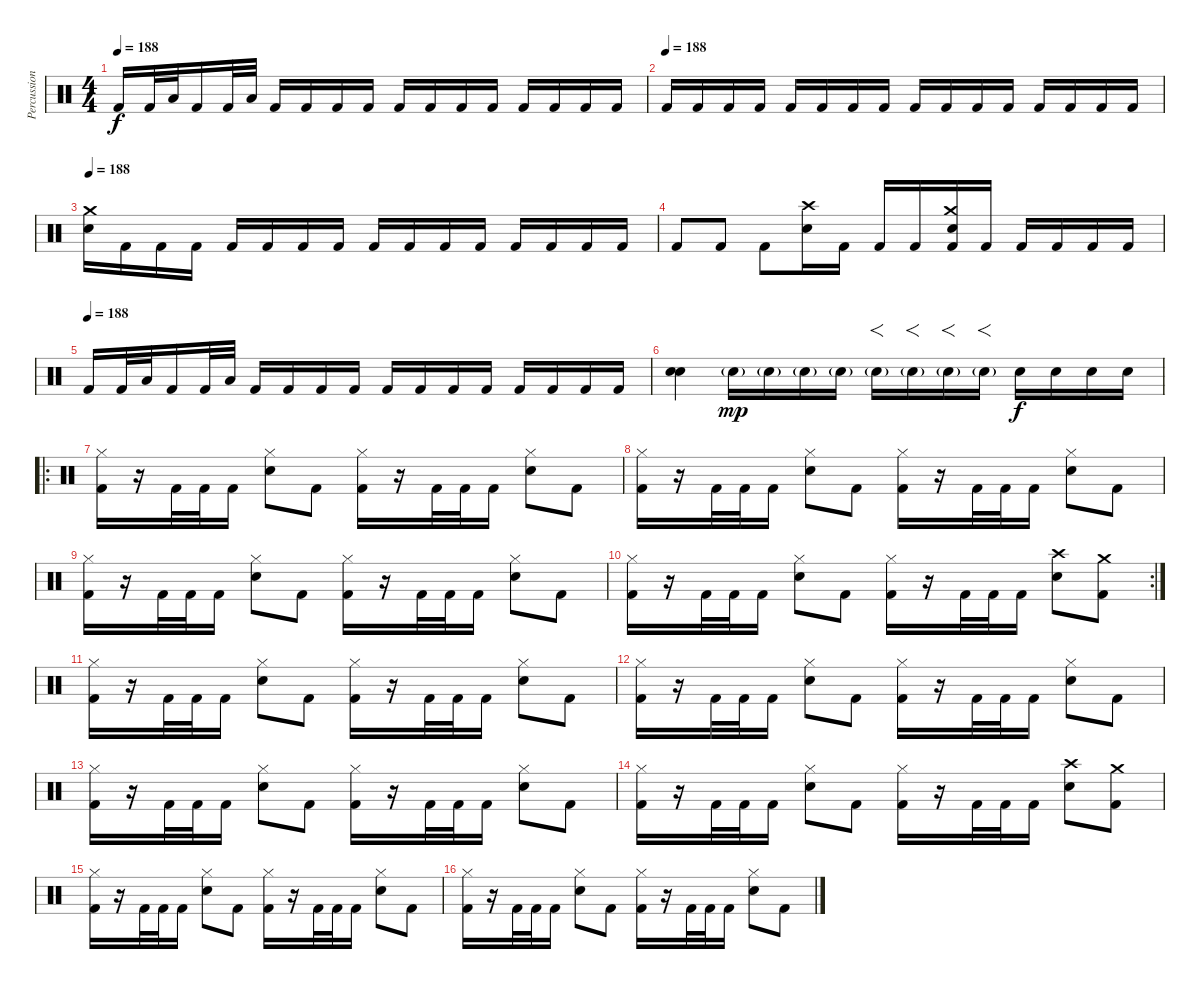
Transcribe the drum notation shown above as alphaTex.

\track ("Percussion" "Percussion") {instrument percussion}
\staff {score}
\articulation defaults
\ts (4 4)
\tempo 188
\clef neutral
\ks c "Kick (hit) 2".16{dy f} "Kick (hit) 2".32 "Low Floor Tom (hit)".32 "Kick (hit) 2".16 "Kick (hit) 2".32 "Low Floor Tom (hit)".32 "Kick (hit) 2".16 "Kick (hit) 2".16 "Kick (hit) 2".16 "Kick (hit) 2".16 "Kick (hit) 2".16 "Kick (hit) 2".16 "Kick (hit) 2".16 "Kick (hit) 2".16 "Kick (hit) 2".16 "Kick (hit) 2".16 "Kick (hit) 2".16 "Kick (hit) 2".16
|
\tempo (188)
"Kick (hit) 2".16 "Kick (hit) 2".16 "Kick (hit) 2".16 "Kick (hit) 2".16 "Kick (hit) 2".16 "Kick (hit) 2".16 "Kick (hit) 2".16 "Kick (hit) 2".16 "Kick (hit) 2".16 "Kick (hit) 2".16 "Kick (hit) 2".16 "Kick (hit) 2".16 "Kick (hit) 2".16 "Kick (hit) 2".16 "Kick (hit) 2".16 "Kick (hit) 2".16 |
\tempo 188
("Crash medium (hit)" "Electric Snare (hit)").16 "Kick (hit) 2".16 "Kick (hit) 2".16 "Kick (hit) 2".16 "Kick (hit) 2".16 "Kick (hit) 2".16 "Kick (hit) 2".16 "Kick (hit) 2".16 "Kick (hit) 2".16 "Kick (hit) 2".16 "Kick (hit) 2".16 "Kick (hit) 2".16 "Kick (hit) 2".16 "Kick (hit) 2".16 "Kick (hit) 2".16 "Kick (hit) 2".16 |
"Kick (hit) 2".8 "Kick (hit) 2".8 "Kick (hit) 2".8 ("Crash high (hit)" "Electric Snare (hit)").16 "Kick (hit) 2".16 "Kick (hit) 2".16 "Kick (hit) 2".16 ("Crash medium (hit)" "Electric Snare (hit)" "Kick (hit) 2").16 "Kick (hit) 2".16 "Kick (hit) 2".16 "Kick (hit) 2".16 "Kick (hit) 2".16 "Kick (hit) 2".16 |
\tempo (188)
"Kick (hit) 2".16 "Kick (hit) 2".32 "Low Floor Tom (hit)".32 "Kick (hit) 2".16 "Kick (hit) 2".32 "Low Floor Tom (hit)".32 "Kick (hit) 2".16 "Kick (hit) 2".16 "Kick (hit) 2".16 "Kick (hit) 2".16 "Kick (hit) 2".16 "Kick (hit) 2".16 "Kick (hit) 2".16 "Kick (hit) 2".16 "Kick (hit) 2".16 "Kick (hit) 2".16 "Kick (hit) 2".16 "Kick (hit) 2".16 |
("Electric Snare (hit)" "Snare (hit) 2").4 "Electric Snare (hit)"{g}.16{dy mp} "Electric Snare (hit)"{g}.16 "Electric Snare (hit)"{g}.16 "Electric Snare (hit)"{g}.16 "Electric Snare (hit)"{g}.16{f} "Electric Snare (hit)"{g}.16{f} "Electric Snare (hit)"{g}.16{f} "Electric Snare (hit)"{g}.16{f} "Electric Snare (hit)".16{dy f} "Electric Snare (hit)".16 "Electric Snare (hit)".16 "Electric Snare (hit)".16 |
\ro
("Hi-Hat (closed)" "Kick (hit) 2").16 r.16 "Kick (hit) 2".32 "Kick (hit) 2".32 "Kick (hit) 2".16 ("Hi-Hat (closed)" "Electric Snare (hit)").8 "Kick (hit) 2".8 ("Hi-Hat (closed)" "Kick (hit) 2").16 r.16 "Kick (hit) 2".32 "Kick (hit) 2".32 "Kick (hit) 2".16 ("Hi-Hat (closed)" "Electric Snare (hit)").8 "Kick (hit) 2".8 |
("Hi-Hat (closed)" "Kick (hit) 2").16 r.16 "Kick (hit) 2".32 "Kick (hit) 2".32 "Kick (hit) 2".16 ("Hi-Hat (closed)" "Electric Snare (hit)").8 "Kick (hit) 2".8 ("Hi-Hat (closed)" "Kick (hit) 2").16 r.16 "Kick (hit) 2".32 "Kick (hit) 2".32 "Kick (hit) 2".16 ("Hi-Hat (closed)" "Electric Snare (hit)").8 "Kick (hit) 2".8 |
("Hi-Hat (closed)" "Kick (hit) 2").16 r.16 "Kick (hit) 2".32 "Kick (hit) 2".32 "Kick (hit) 2".16 ("Hi-Hat (closed)" "Electric Snare (hit)").8 "Kick (hit) 2".8 ("Hi-Hat (closed)" "Kick (hit) 2").16 r.16 "Kick (hit) 2".32 "Kick (hit) 2".32 "Kick (hit) 2".16 ("Hi-Hat (closed)" "Electric Snare (hit)").8 "Kick (hit) 2".8 |
\rc 2
("Hi-Hat (closed)" "Kick (hit) 2").16 r.16 "Kick (hit) 2".32 "Kick (hit) 2".32 "Kick (hit) 2".16 ("Hi-Hat (closed)" "Electric Snare (hit)").8 "Kick (hit) 2".8 ("Hi-Hat (closed)" "Kick (hit) 2").16 r.16 "Kick (hit) 2".32 "Kick (hit) 2".32 "Kick (hit) 2".16 ("Crash high (hit)" "Electric Snare (hit)").8 ("Crash medium (hit)" "Kick (hit) 2").8 |
("Hi-Hat (closed)" "Kick (hit) 2").16 r.16 "Kick (hit) 2".32 "Kick (hit) 2".32 "Kick (hit) 2".16 ("Hi-Hat (closed)" "Electric Snare (hit)").8 "Kick (hit) 2".8 ("Hi-Hat (closed)" "Kick (hit) 2").16 r.16 "Kick (hit) 2".32 "Kick (hit) 2".32 "Kick (hit) 2".16 ("Hi-Hat (closed)" "Electric Snare (hit)").8 "Kick (hit) 2".8 |
("Hi-Hat (closed)" "Kick (hit) 2").16 r.16 "Kick (hit) 2".32 "Kick (hit) 2".32 "Kick (hit) 2".16 ("Hi-Hat (closed)" "Electric Snare (hit)").8 "Kick (hit) 2".8 ("Hi-Hat (closed)" "Kick (hit) 2").16 r.16 "Kick (hit) 2".32 "Kick (hit) 2".32 "Kick (hit) 2".16 ("Hi-Hat (closed)" "Electric Snare (hit)").8 "Kick (hit) 2".8 |
("Hi-Hat (closed)" "Kick (hit) 2").16 r.16 "Kick (hit) 2".32 "Kick (hit) 2".32 "Kick (hit) 2".16 ("Hi-Hat (closed)" "Electric Snare (hit)").8 "Kick (hit) 2".8 ("Hi-Hat (closed)" "Kick (hit) 2").16 r.16 "Kick (hit) 2".32 "Kick (hit) 2".32 "Kick (hit) 2".16 ("Hi-Hat (closed)" "Electric Snare (hit)").8 "Kick (hit) 2".8 |
("Hi-Hat (closed)" "Kick (hit) 2").16 r.16 "Kick (hit) 2".32 "Kick (hit) 2".32 "Kick (hit) 2".16 ("Hi-Hat (closed)" "Electric Snare (hit)").8 "Kick (hit) 2".8 ("Hi-Hat (closed)" "Kick (hit) 2").16 r.16 "Kick (hit) 2".32 "Kick (hit) 2".32 "Kick (hit) 2".16 ("Crash high (hit)" "Electric Snare (hit)").8 ("Crash medium (hit)" "Kick (hit) 2").8 |
("Hi-Hat (closed)" "Kick (hit) 2").16 r.16 "Kick (hit) 2".32 "Kick (hit) 2".32 "Kick (hit) 2".16 ("Hi-Hat (closed)" "Electric Snare (hit)").8 "Kick (hit) 2".8 ("Hi-Hat (closed)" "Kick (hit) 2").16 r.16 "Kick (hit) 2".32 "Kick (hit) 2".32 "Kick (hit) 2".16 ("Hi-Hat (closed)" "Electric Snare (hit)").8 "Kick (hit) 2".8 |
("Hi-Hat (closed)" "Kick (hit) 2").16 r.16 "Kick (hit) 2".32 "Kick (hit) 2".32 "Kick (hit) 2".16 ("Hi-Hat (closed)" "Electric Snare (hit)").8 "Kick (hit) 2".8 ("Hi-Hat (closed)" "Kick (hit) 2").16 r.16 "Kick (hit) 2".32 "Kick (hit) 2".32 "Kick (hit) 2".16 ("Hi-Hat (closed)" "Electric Snare (hit)").8 "Kick (hit) 2".8
